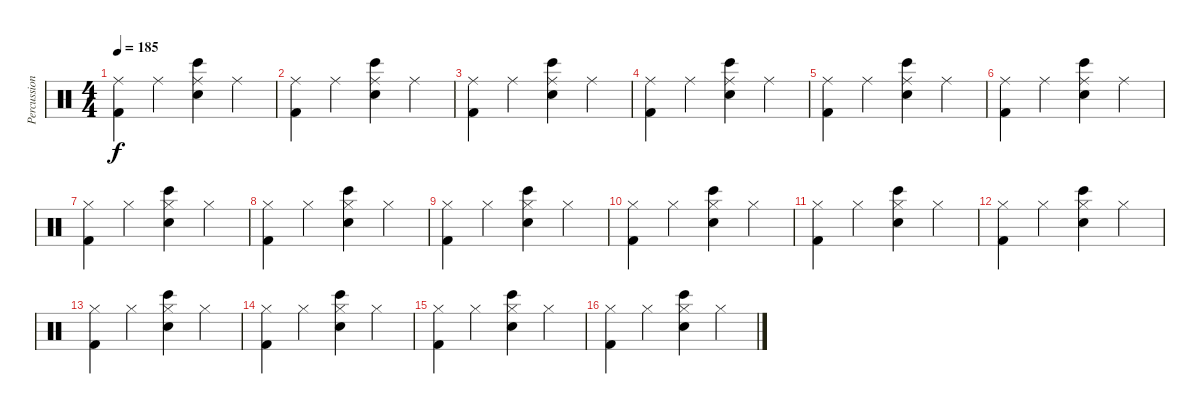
\track ("Percussion" "Percussion") {instrument percussion}
\staff {score}
\articulation defaults
\ts (4 4)
\tempo 185
\clef neutral
\ks c
("Ride (middle)" "Kick (hit) 2").4{dy f} "Ride (middle)".4 ("Bongo High (hit)" "Electric Snare (hit)" "Ride (middle)").4 "Ride (middle)".4 |
("Ride (middle)" "Kick (hit) 2").4 "Ride (middle)".4 ("Bongo High (hit)" "Electric Snare (hit)" "Ride (middle)").4 "Ride (middle)".4 |
("Ride (middle)" "Kick (hit) 2").4 "Ride (middle)".4 ("Bongo High (hit)" "Electric Snare (hit)" "Ride (middle)").4 "Ride (middle)".4 |
("Ride (middle)" "Kick (hit) 2").4 "Ride (middle)".4 ("Bongo High (hit)" "Electric Snare (hit)" "Ride (middle)").4 "Ride (middle)".4 |
("Ride (middle)" "Kick (hit) 2").4 "Ride (middle)".4 ("Bongo High (hit)" "Electric Snare (hit)" "Ride (middle)").4 "Ride (middle)".4 |
("Ride (middle)" "Kick (hit) 2").4 "Ride (middle)".4 ("Bongo High (hit)" "Electric Snare (hit)" "Ride (middle)").4 "Ride (middle)".4 |
("Hi-Hat (closed)" "Kick (hit) 2").4 "Hi-Hat (closed)".4 ("Bongo High (hit)" "Electric Snare (hit)" "Hi-Hat (closed)").4 "Hi-Hat (closed)".4 |
("Hi-Hat (closed)" "Kick (hit) 2").4 "Hi-Hat (closed)".4 ("Bongo High (hit)" "Electric Snare (hit)" "Hi-Hat (closed)").4 "Hi-Hat (closed)".4 |
("Hi-Hat (closed)" "Kick (hit) 2").4 "Hi-Hat (closed)".4 ("Bongo High (hit)" "Electric Snare (hit)" "Hi-Hat (closed)").4 "Hi-Hat (closed)".4 |
("Hi-Hat (closed)" "Kick (hit) 2").4 "Hi-Hat (closed)".4 ("Bongo High (hit)" "Electric Snare (hit)" "Hi-Hat (closed)").4 "Hi-Hat (closed)".4 |
("Hi-Hat (closed)" "Kick (hit) 2").4 "Hi-Hat (closed)".4 ("Bongo High (hit)" "Electric Snare (hit)" "Hi-Hat (closed)").4 "Hi-Hat (closed)".4 |
("Hi-Hat (closed)" "Kick (hit) 2").4 "Hi-Hat (closed)".4 ("Bongo High (hit)" "Electric Snare (hit)" "Hi-Hat (closed)").4 "Hi-Hat (closed)".4 |
("Hi-Hat (closed)" "Kick (hit) 2").4 "Hi-Hat (closed)".4 ("Bongo High (hit)" "Electric Snare (hit)" "Hi-Hat (closed)").4 "Hi-Hat (closed)".4 |
("Hi-Hat (closed)" "Kick (hit) 2").4 "Hi-Hat (closed)".4 ("Bongo High (hit)" "Electric Snare (hit)" "Hi-Hat (closed)").4 "Hi-Hat (closed)".4 |
("Hi-Hat (closed)" "Kick (hit) 2").4 "Hi-Hat (closed)".4 ("Bongo High (hit)" "Electric Snare (hit)" "Hi-Hat (closed)").4 "Hi-Hat (closed)".4 |
("Hi-Hat (closed)" "Kick (hit) 2").4 "Hi-Hat (closed)".4 ("Bongo High (hit)" "Electric Snare (hit)" "Hi-Hat (closed)").4 "Hi-Hat (closed)".4
